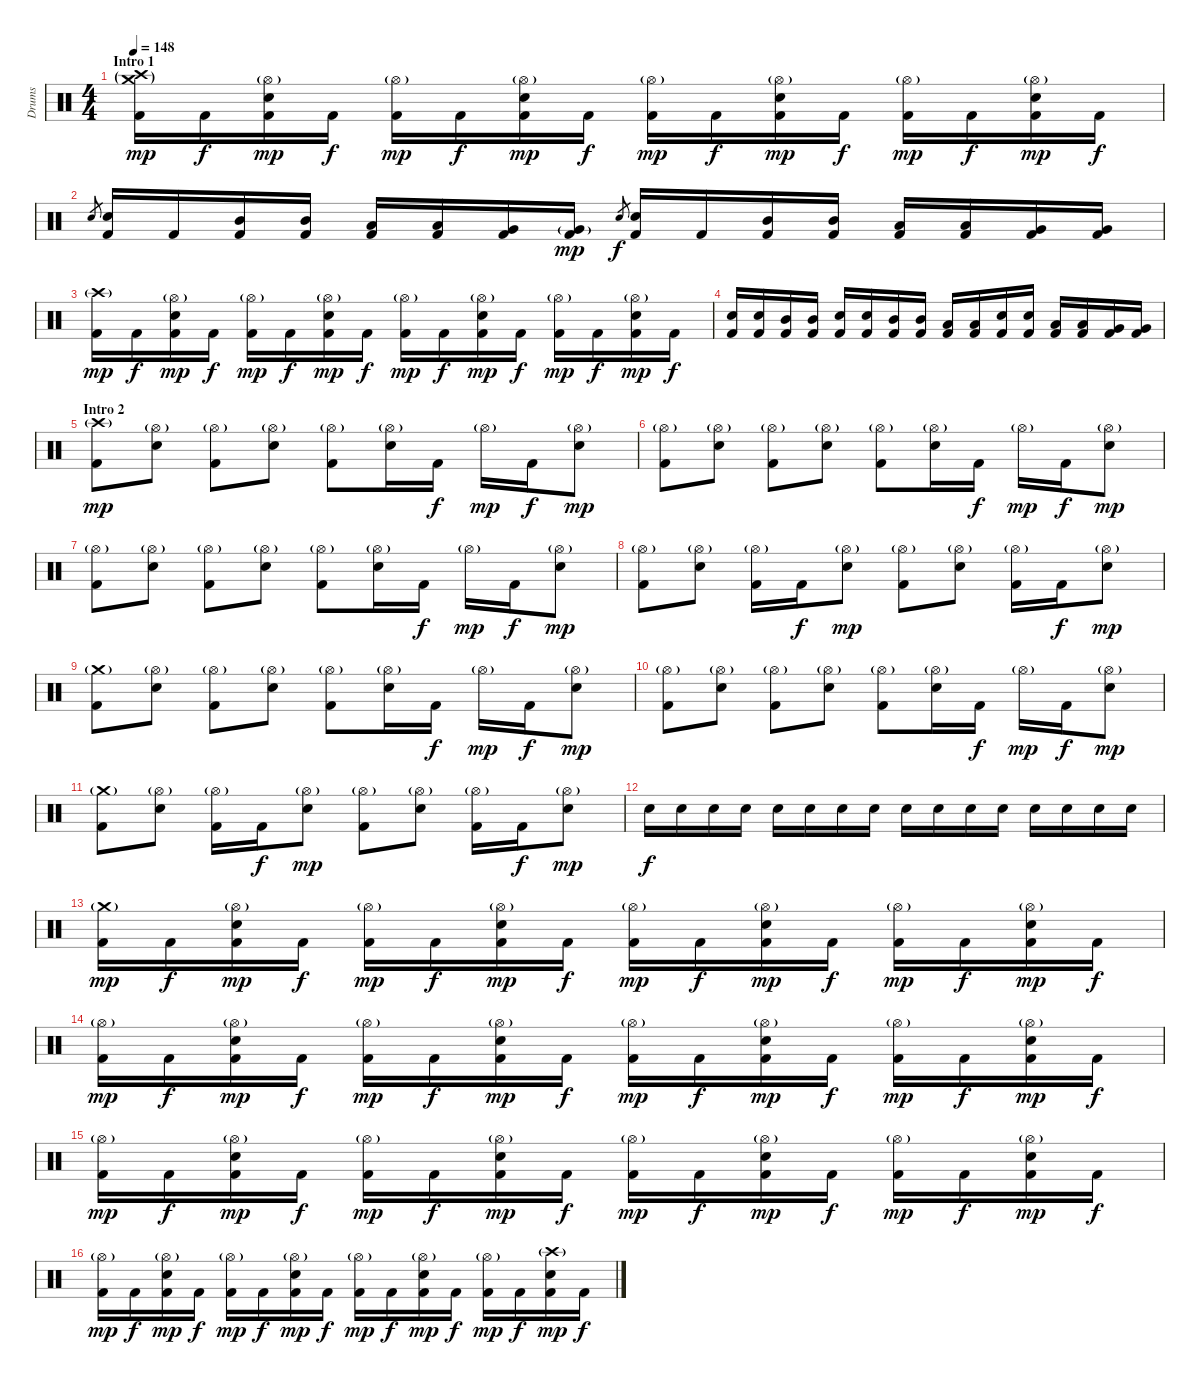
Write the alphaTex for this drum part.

\track ("Drums" "Drums") {instrument percussion}
\staff {score}
\articulation defaults
\ts (4 4)
\section ("" "Intro 1")
\tempo 148
\clef neutral
\ks c
("Crash medium (hit)"{g} "Crash high (hit)"{g} "Kick (hit) 2").16{dy mp} "Kick (hit) 2".16{dy f} ("Hi-Hat (open)"{g} "Snare (hit) 2" "Kick (hit) 2").16{dy mp} "Kick (hit) 2".16{dy f} ("Hi-Hat (open)"{g} "Kick (hit) 2").16{dy mp} "Kick (hit) 2".16{dy f} ("Hi-Hat (open)"{g} "Snare (hit) 2" "Kick (hit) 2").16{dy mp} "Kick (hit) 2".16{dy f} ("Hi-Hat (open)"{g} "Kick (hit) 2").16{dy mp} "Kick (hit) 2".16{dy f} ("Hi-Hat (open)"{g} "Snare (hit) 2" "Kick (hit) 2").16{dy mp} "Kick (hit) 2".16{dy f} ("Hi-Hat (open)"{g} "Kick (hit) 2").16{dy mp} "Kick (hit) 2".16{dy f} ("Hi-Hat (open)"{g} "Snare (hit) 2" "Kick (hit) 2").16{dy mp} "Kick (hit) 2".16{dy f} |
"Snare (hit) 2".8{gr} ("Snare (hit) 2" "Kick (hit) 2").16 "Kick (hit) 2".16 ("Mid Tom (hit)" "Kick (hit) 2").16 ("Mid Tom (hit)" "Kick (hit) 2").16 ("Low Tom (hit)" "Kick (hit) 2").16 ("Low Tom (hit)" "Kick (hit) 2").16 ("Very Low Tom (hit)" "Kick (hit) 2").16 ("Very Low Tom (hit)"{g} "Kick (hit) 2").16{dy mp} "Snare (hit) 2".8{gr dy f} ("Snare (hit) 2" "Kick (hit) 2").16 "Kick (hit) 2".16 ("Mid Tom (hit)" "Kick (hit) 2").16 ("Mid Tom (hit)" "Kick (hit) 2").16 ("Low Tom (hit)" "Kick (hit) 2").16 ("Low Tom (hit)" "Kick (hit) 2").16 ("Very Low Tom (hit)" "Kick (hit) 2").16 ("Very Low Tom (hit)" "Kick (hit) 2").16 |
("Crash high (hit)"{g} "Kick (hit) 2").16{dy mp} "Kick (hit) 2".16{dy f} ("Hi-Hat (open)"{g} "Snare (hit) 2" "Kick (hit) 2").16{dy mp} "Kick (hit) 2".16{dy f} ("Hi-Hat (open)"{g} "Kick (hit) 2").16{dy mp} "Kick (hit) 2".16{dy f} ("Hi-Hat (open)"{g} "Snare (hit) 2" "Kick (hit) 2").16{dy mp} "Kick (hit) 2".16{dy f} ("Hi-Hat (open)"{g} "Kick (hit) 2").16{dy mp} "Kick (hit) 2".16{dy f} ("Hi-Hat (open)"{g} "Snare (hit) 2" "Kick (hit) 2").16{dy mp} "Kick (hit) 2".16{dy f} ("Hi-Hat (open)"{g} "Kick (hit) 2").16{dy mp} "Kick (hit) 2".16{dy f} ("Hi-Hat (open)"{g} "Snare (hit) 2" "Kick (hit) 2").16{dy mp} "Kick (hit) 2".16{dy f} |
("Snare (hit) 2" "Kick (hit) 2").16 ("Snare (hit) 2" "Kick (hit) 2").16 ("Mid Tom (hit)" "Kick (hit) 2").16 ("Mid Tom (hit)" "Kick (hit) 2").16 ("Snare (hit) 2" "Kick (hit) 2").16 ("Snare (hit) 2" "Kick (hit) 2").16 ("Mid Tom (hit)" "Kick (hit) 2").16 ("Mid Tom (hit)" "Kick (hit) 2").16 ("Low Tom (hit)" "Kick (hit) 2").16 ("Low Tom (hit)" "Kick (hit) 2").16 ("Snare (hit) 2" "Kick (hit) 2").16 ("Snare (hit) 2" "Kick (hit) 2").16 ("Low Tom (hit)" "Kick (hit) 2").16 ("Low Tom (hit)" "Kick (hit) 2").16 ("Very Low Tom (hit)" "Kick (hit) 2").16 ("Very Low Tom (hit)" "Kick (hit) 2").16 |
\section ("" "Intro 2")
("Crash high (hit)"{g} "Kick (hit) 2").8{dy mp} ("Hi-Hat (open)"{g} "Snare (hit) 2").8 ("Hi-Hat (open)"{g} "Kick (hit) 2").8 ("Hi-Hat (open)"{g} "Snare (hit) 2").8 ("Hi-Hat (open)"{g} "Kick (hit) 2").8 ("Hi-Hat (open)"{g} "Snare (hit) 2").16 "Kick (hit) 2".16{dy f} "Hi-Hat (open)"{g}.16{dy mp} "Kick (hit) 2".16{dy f} ("Hi-Hat (open)"{g} "Snare (hit) 2").8{dy mp} |
("Hi-Hat (open)"{g} "Kick (hit) 2").8 ("Hi-Hat (open)"{g} "Snare (hit) 2").8 ("Hi-Hat (open)"{g} "Kick (hit) 2").8 ("Hi-Hat (open)"{g} "Snare (hit) 2").8 ("Hi-Hat (open)"{g} "Kick (hit) 2").8 ("Hi-Hat (open)"{g} "Snare (hit) 2").16 "Kick (hit) 2".16{dy f} "Hi-Hat (open)"{g}.16{dy mp} "Kick (hit) 2".16{dy f} ("Hi-Hat (open)"{g} "Snare (hit) 2").8{dy mp} |
("Hi-Hat (open)"{g} "Kick (hit) 2").8 ("Hi-Hat (open)"{g} "Snare (hit) 2").8 ("Hi-Hat (open)"{g} "Kick (hit) 2").8 ("Hi-Hat (open)"{g} "Snare (hit) 2").8 ("Hi-Hat (open)"{g} "Kick (hit) 2").8 ("Hi-Hat (open)"{g} "Snare (hit) 2").16 "Kick (hit) 2".16{dy f} "Hi-Hat (open)"{g}.16{dy mp} "Kick (hit) 2".16{dy f} ("Hi-Hat (open)"{g} "Snare (hit) 2").8{dy mp} |
("Hi-Hat (open)"{g} "Kick (hit) 2").8 ("Hi-Hat (open)"{g} "Snare (hit) 2").8 ("Hi-Hat (open)"{g} "Kick (hit) 2").16 "Kick (hit) 2".16{dy f} ("Hi-Hat (open)"{g} "Snare (hit) 2").8{dy mp} ("Hi-Hat (open)"{g} "Kick (hit) 2").8 ("Hi-Hat (open)"{g} "Snare (hit) 2").8 ("Hi-Hat (open)"{g} "Kick (hit) 2").16 "Kick (hit) 2".16{dy f} ("Hi-Hat (open)"{g} "Snare (hit) 2").8{dy mp} |
("Crash medium (hit)"{g} "Kick (hit) 2").8 ("Hi-Hat (open)"{g} "Snare (hit) 2").8 ("Hi-Hat (open)"{g} "Kick (hit) 2").8 ("Hi-Hat (open)"{g} "Snare (hit) 2").8 ("Hi-Hat (open)"{g} "Kick (hit) 2").8 ("Hi-Hat (open)"{g} "Snare (hit) 2").16 "Kick (hit) 2".16{dy f} "Hi-Hat (open)"{g}.16{dy mp} "Kick (hit) 2".16{dy f} ("Hi-Hat (open)"{g} "Snare (hit) 2").8{dy mp} |
("Hi-Hat (open)"{g} "Kick (hit) 2").8 ("Hi-Hat (open)"{g} "Snare (hit) 2").8 ("Hi-Hat (open)"{g} "Kick (hit) 2").8 ("Hi-Hat (open)"{g} "Snare (hit) 2").8 ("Hi-Hat (open)"{g} "Kick (hit) 2").8 ("Hi-Hat (open)"{g} "Snare (hit) 2").16 "Kick (hit) 2".16{dy f} "Hi-Hat (open)"{g}.16{dy mp} "Kick (hit) 2".16{dy f} ("Hi-Hat (open)"{g} "Snare (hit) 2").8{dy mp} |
("Crash medium (hit)"{g} "Kick (hit) 2").8 ("Hi-Hat (open)"{g} "Snare (hit) 2").8 ("Hi-Hat (open)"{g} "Kick (hit) 2").16 "Kick (hit) 2".16{dy f} ("Hi-Hat (open)"{g} "Snare (hit) 2").8{dy mp} ("Hi-Hat (open)"{g} "Kick (hit) 2").8 ("Hi-Hat (open)"{g} "Snare (hit) 2").8 ("Hi-Hat (open)"{g} "Kick (hit) 2").16 "Kick (hit) 2".16{dy f} ("Hi-Hat (open)"{g} "Snare (hit) 2").8{dy mp} |
"Snare (hit) 2".16{dy f} "Snare (hit) 2".16 "Snare (hit) 2".16 "Snare (hit) 2".16 "Snare (hit) 2".16 "Snare (hit) 2".16 "Snare (hit) 2".16 "Snare (hit) 2".16 "Snare (hit) 2".16 "Snare (hit) 2".16 "Snare (hit) 2".16 "Snare (hit) 2".16 "Snare (hit) 2".16 "Snare (hit) 2".16 "Snare (hit) 2".16 "Snare (hit) 2".16 |
("Crash medium (hit)"{g} "Kick (hit) 2").16{dy mp} "Kick (hit) 2".16{dy f} ("Hi-Hat (open)"{g} "Snare (hit) 2" "Kick (hit) 2").16{dy mp} "Kick (hit) 2".16{dy f} ("Hi-Hat (open)"{g} "Kick (hit) 2").16{dy mp} "Kick (hit) 2".16{dy f} ("Hi-Hat (open)"{g} "Snare (hit) 2" "Kick (hit) 2").16{dy mp} "Kick (hit) 2".16{dy f} ("Hi-Hat (open)"{g} "Kick (hit) 2").16{dy mp} "Kick (hit) 2".16{dy f} ("Hi-Hat (open)"{g} "Snare (hit) 2" "Kick (hit) 2").16{dy mp} "Kick (hit) 2".16{dy f} ("Hi-Hat (open)"{g} "Kick (hit) 2").16{dy mp} "Kick (hit) 2".16{dy f} ("Hi-Hat (open)"{g} "Snare (hit) 2" "Kick (hit) 2").16{dy mp} "Kick (hit) 2".16{dy f} |
("Hi-Hat (open)"{g} "Kick (hit) 2").16{dy mp} "Kick (hit) 2".16{dy f} ("Hi-Hat (open)"{g} "Snare (hit) 2" "Kick (hit) 2").16{dy mp} "Kick (hit) 2".16{dy f} ("Hi-Hat (open)"{g} "Kick (hit) 2").16{dy mp} "Kick (hit) 2".16{dy f} ("Hi-Hat (open)"{g} "Snare (hit) 2" "Kick (hit) 2").16{dy mp} "Kick (hit) 2".16{dy f} ("Hi-Hat (open)"{g} "Kick (hit) 2").16{dy mp} "Kick (hit) 2".16{dy f} ("Hi-Hat (open)"{g} "Snare (hit) 2" "Kick (hit) 2").16{dy mp} "Kick (hit) 2".16{dy f} ("Hi-Hat (open)"{g} "Kick (hit) 2").16{dy mp} "Kick (hit) 2".16{dy f} ("Hi-Hat (open)"{g} "Snare (hit) 2" "Kick (hit) 2").16{dy mp} "Kick (hit) 2".16{dy f} |
("Hi-Hat (open)"{g} "Kick (hit) 2").16{dy mp} "Kick (hit) 2".16{dy f} ("Hi-Hat (open)"{g} "Snare (hit) 2" "Kick (hit) 2").16{dy mp} "Kick (hit) 2".16{dy f} ("Hi-Hat (open)"{g} "Kick (hit) 2").16{dy mp} "Kick (hit) 2".16{dy f} ("Hi-Hat (open)"{g} "Snare (hit) 2" "Kick (hit) 2").16{dy mp} "Kick (hit) 2".16{dy f} ("Hi-Hat (open)"{g} "Kick (hit) 2").16{dy mp} "Kick (hit) 2".16{dy f} ("Hi-Hat (open)"{g} "Snare (hit) 2" "Kick (hit) 2").16{dy mp} "Kick (hit) 2".16{dy f} ("Hi-Hat (open)"{g} "Kick (hit) 2").16{dy mp} "Kick (hit) 2".16{dy f} ("Hi-Hat (open)"{g} "Snare (hit) 2" "Kick (hit) 2").16{dy mp} "Kick (hit) 2".16{dy f} |
("Hi-Hat (open)"{g} "Kick (hit) 2").16{dy mp} "Kick (hit) 2".16{dy f} ("Hi-Hat (open)"{g} "Snare (hit) 2" "Kick (hit) 2").16{dy mp} "Kick (hit) 2".16{dy f} ("Hi-Hat (open)"{g} "Kick (hit) 2").16{dy mp} "Kick (hit) 2".16{dy f} ("Hi-Hat (open)"{g} "Snare (hit) 2" "Kick (hit) 2").16{dy mp} "Kick (hit) 2".16{dy f} ("Hi-Hat (open)"{g} "Kick (hit) 2").16{dy mp} "Kick (hit) 2".16{dy f} ("Hi-Hat (open)"{g} "Snare (hit) 2" "Kick (hit) 2").16{dy mp} "Kick (hit) 2".16{dy f} ("Hi-Hat (open)"{g} "Kick (hit) 2").16{dy mp} "Kick (hit) 2".16{dy f} ("Crash high (hit)"{g} "Snare (hit) 2" "Kick (hit) 2").16{dy mp} "Kick (hit) 2".16{dy f}
